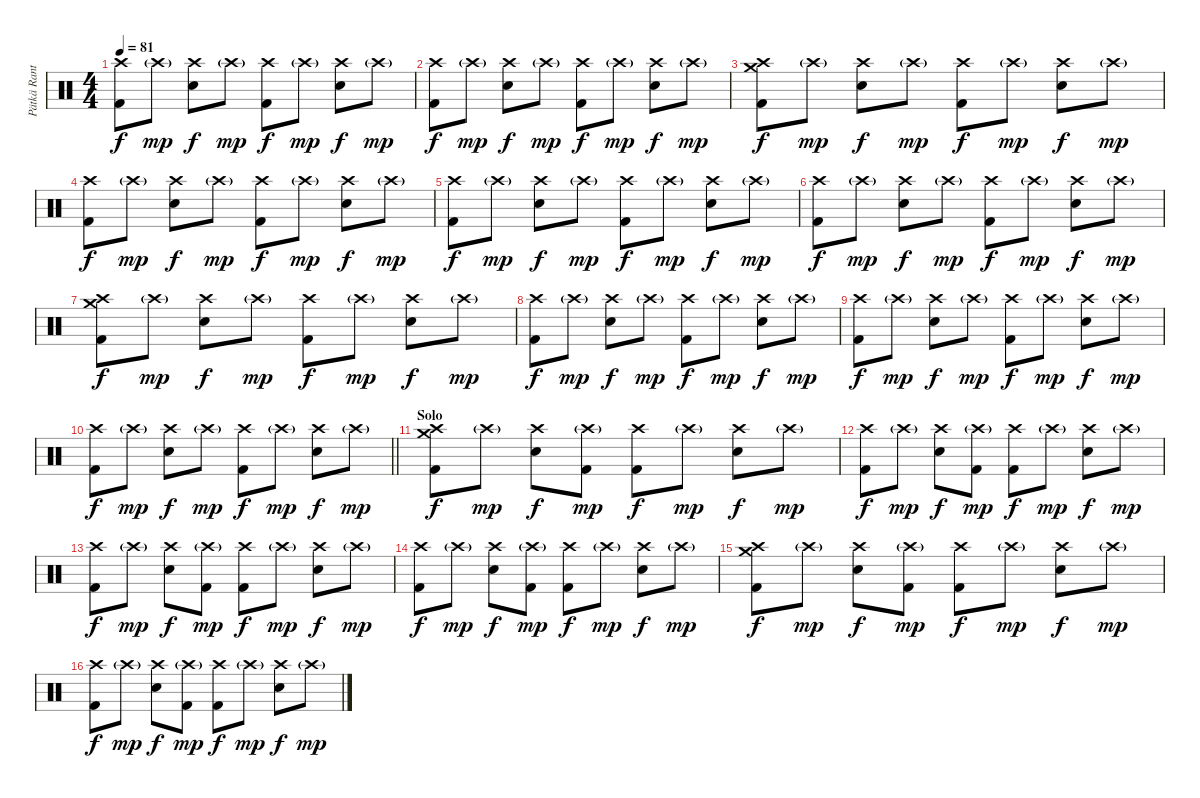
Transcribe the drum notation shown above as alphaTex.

\track ("Pätkä Rantala (Drums)" "Pätkä Rant") {instrument percussion}
\staff {score}
\articulation defaults
\ts (4 4)
\tempo 81
\clef neutral
\ks c
("Crash high (hit)" "Kick (hit) 2").8{dy f} "Crash high (hit)"{g}.8{dy mp} ("Crash high (hit)" "Snare (hit) 2").8{dy f} "Crash high (hit)"{g}.8{dy mp} ("Crash high (hit)" "Kick (hit) 2").8{dy f} "Crash high (hit)"{g}.8{dy mp} ("Crash high (hit)" "Snare (hit) 2").8{dy f} "Crash high (hit)"{g}.8{dy mp} |
("Crash high (hit)" "Kick (hit) 2").8{dy f} "Crash high (hit)"{g}.8{dy mp} ("Crash high (hit)" "Snare (hit) 2").8{dy f} "Crash high (hit)"{g}.8{dy mp} ("Crash high (hit)" "Kick (hit) 2").8{dy f} "Crash high (hit)"{g}.8{dy mp} ("Crash high (hit)" "Snare (hit) 2").8{dy f} "Crash high (hit)"{g}.8{dy mp} |
("Crash medium (hit)" "Crash high (hit)" "Kick (hit) 2").8{dy f} "Crash high (hit)"{g}.8{dy mp} ("Crash high (hit)" "Snare (hit) 2").8{dy f} "Crash high (hit)"{g}.8{dy mp} ("Crash high (hit)" "Kick (hit) 2").8{dy f} "Crash high (hit)"{g}.8{dy mp} ("Crash high (hit)" "Snare (hit) 2").8{dy f} "Crash high (hit)"{g}.8{dy mp} |
("Crash high (hit)" "Kick (hit) 2").8{dy f} "Crash high (hit)"{g}.8{dy mp} ("Crash high (hit)" "Snare (hit) 2").8{dy f} "Crash high (hit)"{g}.8{dy mp} ("Crash high (hit)" "Kick (hit) 2").8{dy f} "Crash high (hit)"{g}.8{dy mp} ("Crash high (hit)" "Snare (hit) 2").8{dy f} "Crash high (hit)"{g}.8{dy mp} |
("Crash high (hit)" "Kick (hit) 2").8{dy f} "Crash high (hit)"{g}.8{dy mp} ("Crash high (hit)" "Snare (hit) 2").8{dy f} "Crash high (hit)"{g}.8{dy mp} ("Crash high (hit)" "Kick (hit) 2").8{dy f} "Crash high (hit)"{g}.8{dy mp} ("Crash high (hit)" "Snare (hit) 2").8{dy f} "Crash high (hit)"{g}.8{dy mp} |
("Crash high (hit)" "Kick (hit) 2").8{dy f} "Crash high (hit)"{g}.8{dy mp} ("Crash high (hit)" "Snare (hit) 2").8{dy f} "Crash high (hit)"{g}.8{dy mp} ("Crash high (hit)" "Kick (hit) 2").8{dy f} "Crash high (hit)"{g}.8{dy mp} ("Crash high (hit)" "Snare (hit) 2").8{dy f} "Crash high (hit)"{g}.8{dy mp} |
("Crash medium (hit)" "Crash high (hit)" "Kick (hit) 2").8{dy f} "Crash high (hit)"{g}.8{dy mp} ("Crash high (hit)" "Snare (hit) 2").8{dy f} "Crash high (hit)"{g}.8{dy mp} ("Crash high (hit)" "Kick (hit) 2").8{dy f} "Crash high (hit)"{g}.8{dy mp} ("Crash high (hit)" "Snare (hit) 2").8{dy f} "Crash high (hit)"{g}.8{dy mp} |
("Crash high (hit)" "Kick (hit) 2").8{dy f} "Crash high (hit)"{g}.8{dy mp} ("Crash high (hit)" "Snare (hit) 2").8{dy f} "Crash high (hit)"{g}.8{dy mp} ("Crash high (hit)" "Kick (hit) 2").8{dy f} "Crash high (hit)"{g}.8{dy mp} ("Crash high (hit)" "Snare (hit) 2").8{dy f} "Crash high (hit)"{g}.8{dy mp} |
("Crash high (hit)" "Kick (hit) 2").8{dy f} "Crash high (hit)"{g}.8{dy mp} ("Crash high (hit)" "Snare (hit) 2").8{dy f} "Crash high (hit)"{g}.8{dy mp} ("Crash high (hit)" "Kick (hit) 2").8{dy f} "Crash high (hit)"{g}.8{dy mp} ("Crash high (hit)" "Snare (hit) 2").8{dy f} "Crash high (hit)"{g}.8{dy mp} |
\barLineRight lightlight
("Crash high (hit)" "Kick (hit) 2").8{dy f} "Crash high (hit)"{g}.8{dy mp} ("Crash high (hit)" "Snare (hit) 2").8{dy f} "Crash high (hit)"{g}.8{dy mp} ("Crash high (hit)" "Kick (hit) 2").8{dy f} "Crash high (hit)"{g}.8{dy mp} ("Crash high (hit)" "Snare (hit) 2").8{dy f} "Crash high (hit)"{g}.8{dy mp} |
\section ("" "Solo")
("Crash medium (hit)" "Crash high (hit)" "Kick (hit) 2").8{dy f} "Crash high (hit)"{g}.8{dy mp} ("Crash high (hit)" "Snare (hit) 2").8{dy f} ("Crash high (hit)"{g} "Kick (hit) 2").8{dy mp} ("Crash high (hit)" "Kick (hit) 2").8{dy f} "Crash high (hit)"{g}.8{dy mp} ("Crash high (hit)" "Snare (hit) 2").8{dy f} "Crash high (hit)"{g}.8{dy mp} |
("Crash high (hit)" "Kick (hit) 2").8{dy f} "Crash high (hit)"{g}.8{dy mp} ("Crash high (hit)" "Snare (hit) 2").8{dy f} ("Crash high (hit)"{g} "Kick (hit) 2").8{dy mp} ("Crash high (hit)" "Kick (hit) 2").8{dy f} "Crash high (hit)"{g}.8{dy mp} ("Crash high (hit)" "Snare (hit) 2").8{dy f} "Crash high (hit)"{g}.8{dy mp} |
("Crash high (hit)" "Kick (hit) 2").8{dy f} "Crash high (hit)"{g}.8{dy mp} ("Crash high (hit)" "Snare (hit) 2").8{dy f} ("Crash high (hit)"{g} "Kick (hit) 2").8{dy mp} ("Crash high (hit)" "Kick (hit) 2").8{dy f} "Crash high (hit)"{g}.8{dy mp} ("Crash high (hit)" "Snare (hit) 2").8{dy f} "Crash high (hit)"{g}.8{dy mp} |
("Crash high (hit)" "Kick (hit) 2").8{dy f} "Crash high (hit)"{g}.8{dy mp} ("Crash high (hit)" "Snare (hit) 2").8{dy f} ("Crash high (hit)"{g} "Kick (hit) 2").8{dy mp} ("Crash high (hit)" "Kick (hit) 2").8{dy f} "Crash high (hit)"{g}.8{dy mp} ("Crash high (hit)" "Snare (hit) 2").8{dy f} "Crash high (hit)"{g}.8{dy mp} |
("Crash medium (hit)" "Crash high (hit)" "Kick (hit) 2").8{dy f} "Crash high (hit)"{g}.8{dy mp} ("Crash high (hit)" "Snare (hit) 2").8{dy f} ("Crash high (hit)"{g} "Kick (hit) 2").8{dy mp} ("Crash high (hit)" "Kick (hit) 2").8{dy f} "Crash high (hit)"{g}.8{dy mp} ("Crash high (hit)" "Snare (hit) 2").8{dy f} "Crash high (hit)"{g}.8{dy mp} |
("Crash high (hit)" "Kick (hit) 2").8{dy f} "Crash high (hit)"{g}.8{dy mp} ("Crash high (hit)" "Snare (hit) 2").8{dy f} ("Crash high (hit)"{g} "Kick (hit) 2").8{dy mp} ("Crash high (hit)" "Kick (hit) 2").8{dy f} "Crash high (hit)"{g}.8{dy mp} ("Crash high (hit)" "Snare (hit) 2").8{dy f} "Crash high (hit)"{g}.8{dy mp}
